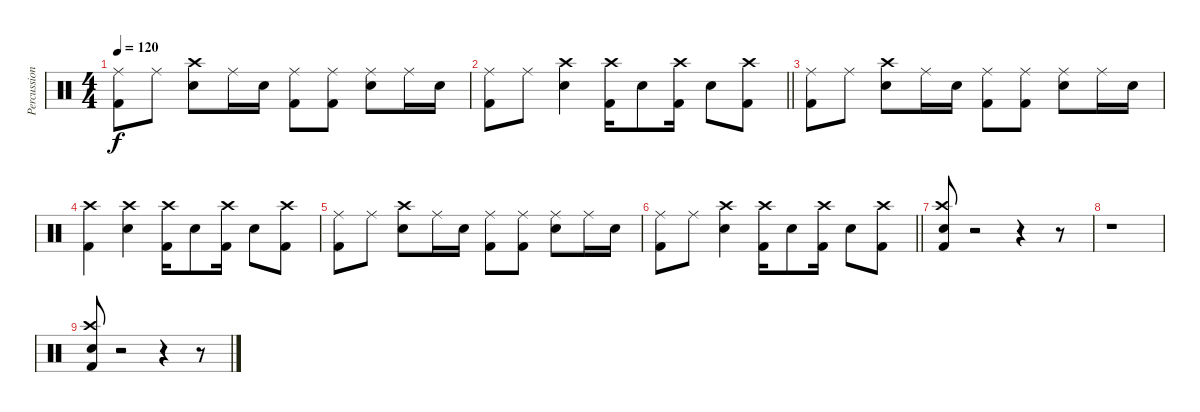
\track ("Percussion" "Percussion") {instrument percussion}
\staff {score}
\articulation defaults
\ts (4 4)
\tempo 120
\clef neutral
\ks c
("Ride (middle)" "Kick (hit) 2").8{dy f} "Ride (middle)".8 ("Crash high (hit)" "Electric Snare (hit)").8 "Ride (middle)".16 "Electric Snare (hit)".16 ("Ride (middle)" "Kick (hit) 2").8 ("Ride (middle)" "Kick (hit) 2").8 ("Ride (middle)" "Electric Snare (hit)").8 "Ride (middle)".16 "Electric Snare (hit)".16 |
\barLineRight lightlight
("Ride (middle)" "Kick (hit) 2").8 "Ride (middle)".8 ("Crash high (hit)" "Electric Snare (hit)").4 ("Crash high (hit)" "Kick (hit) 2").16 "Electric Snare (hit)".8 ("Crash high (hit)" "Kick (hit) 2").16 "Electric Snare (hit)".8 ("Crash high (hit)" "Kick (hit) 2").8 |
("Ride (middle)" "Kick (hit) 2").8 "Ride (middle)".8 ("Crash high (hit)" "Electric Snare (hit)").8 "Ride (middle)".16 "Electric Snare (hit)".16 ("Ride (middle)" "Kick (hit) 2").8 ("Ride (middle)" "Kick (hit) 2").8 ("Ride (middle)" "Electric Snare (hit)").8 "Ride (middle)".16 "Electric Snare (hit)".16 |
("Crash high (hit)" "Kick (hit) 2").4 ("Crash high (hit)" "Electric Snare (hit)").4 ("Crash high (hit)" "Kick (hit) 2").16 "Electric Snare (hit)".8 ("Crash high (hit)" "Kick (hit) 2").16 "Electric Snare (hit)".8 ("Crash high (hit)" "Kick (hit) 2").8 |
("Ride (middle)" "Kick (hit) 2").8 "Ride (middle)".8 ("Crash high (hit)" "Electric Snare (hit)").8 "Ride (middle)".16 "Electric Snare (hit)".16 ("Ride (middle)" "Kick (hit) 2").8 ("Ride (middle)" "Kick (hit) 2").8 ("Ride (middle)" "Electric Snare (hit)").8 "Ride (middle)".16 "Electric Snare (hit)".16 |
\barLineRight lightlight
("Ride (middle)" "Kick (hit) 2").8 "Ride (middle)".8 ("Crash high (hit)" "Electric Snare (hit)").4 ("Crash high (hit)" "Kick (hit) 2").16 "Electric Snare (hit)".8 ("Crash high (hit)" "Kick (hit) 2").16 "Electric Snare (hit)".8 ("Crash high (hit)" "Kick (hit) 2").8 |
("Crash high (hit)" "Electric Snare (hit)" "Kick (hit) 2").8 r.2 r.4 r.8 |
r.1 |
("Crash high (hit)" "Electric Snare (hit)" "Kick (hit) 2").8 r.2 r.4 r.8
